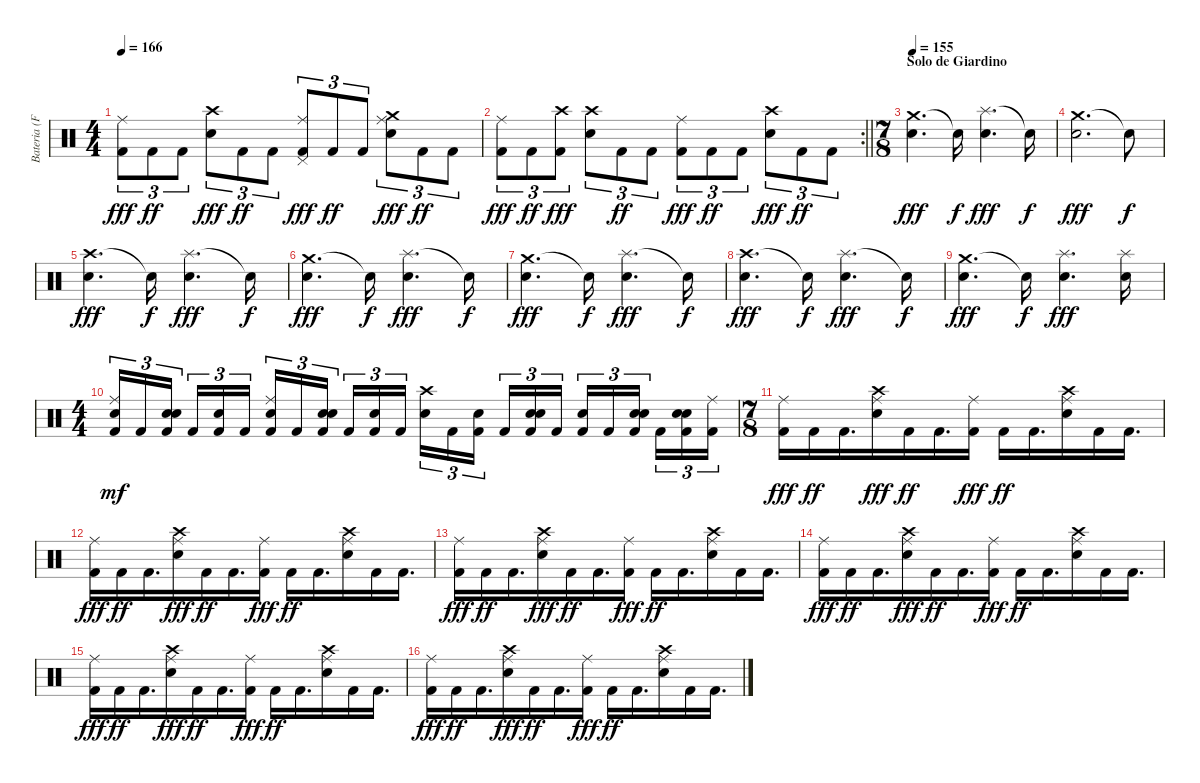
\track ("Bateria (Fernando Scarcella)" "Bateria (F") {instrument percussion}
\staff {score}
\articulation defaults
\ts (4 4)
\tempo 166
\clef neutral
\ks c
("Kick (hit) 2" "Ride (middle)").8{tu (3 2) dy fff} "Kick (hit) 2".8{tu (3 2) dy ff} "Kick (hit) 2".8{tu (3 2)} ("Electric Snare (hit)" "Crash high (hit)").8{tu (3 2) dy fff} "Kick (hit) 2".8{tu (3 2) dy ff} "Kick (hit) 2".8{tu (3 2)} ("Kick (hit) 2" "Ride (middle)" "Pedal Hi-Hat (hit)").8{tu (3 2) dy fff} "Kick (hit) 2".8{tu (3 2) dy ff} "Kick (hit) 2".8{tu (3 2)} ("Electric Snare (hit)" "Crash medium (hit)" "Ride (middle)").8{tu (3 2) dy fff} "Kick (hit) 2".8{tu (3 2) dy ff} "Kick (hit) 2".8{tu (3 2)} |
\rc 2
\barLineRight lightlight
("Kick (hit) 2" "Ride (middle)").8{tu (3 2) dy fff} "Kick (hit) 2".8{tu (3 2) dy ff} ("Kick (hit) 2" "Crash high (hit)").8{tu (3 2) dy fff} ("Electric Snare (hit)" "Crash high (hit)").8{tu (3 2)} "Kick (hit) 2".8{tu (3 2) dy ff} "Kick (hit) 2".8{tu (3 2)} ("Kick (hit) 2" "Ride (middle)").8{tu (3 2) dy fff} "Kick (hit) 2".8{tu (3 2) dy ff} "Kick (hit) 2".8{tu (3 2)} ("Electric Snare (hit)" "Crash high (hit)").8{tu (3 2) dy fff} "Kick (hit) 2".8{tu (3 2) dy ff} "Kick (hit) 2".8{tu (3 2)} |
\ts (7 8)
\section ("" "Solo de Giardino")
\tempo 155
("Crash medium (hit)" "Snare (hit) 2").4{d dy fff} "Snare (hit)"{t}.16{dy f} ("Splash (hit)" "Snare (hit) 2").4{d dy fff} "Snare (hit)"{t}.16{dy f} |
("Crash medium (hit)" "Snare (hit) 2").2{d dy fff} "Snare (hit)"{t}.8{dy f} |
("Crash high (hit)" "Snare (hit) 2").4{d dy fff} "Snare (hit)"{t}.16{dy f} ("Splash (hit)" "Snare (hit) 2").4{d dy fff} "Snare (hit)"{t}.16{dy f} |
("Crash medium (hit)" "Snare (hit) 2").4{d dy fff} "Snare (hit)"{t}.16{dy f} ("Splash (hit)" "Snare (hit) 2").4{d dy fff} "Snare (hit)"{t}.16{dy f} |
("Crash medium (hit)" "Snare (hit) 2").4{d dy fff} "Snare (hit)"{t}.16{dy f} ("Splash (hit)" "Snare (hit) 2").4{d dy fff} "Snare (hit)"{t}.16{dy f} |
("Crash high (hit)" "Snare (hit) 2").4{d dy fff} "Snare (hit)"{t}.16{dy f} ("Splash (hit)" "Snare (hit) 2").4{d dy fff} "Snare (hit)"{t}.16{dy f} |
("Crash medium (hit)" "Snare (hit) 2").4{d dy fff} "Snare (hit)"{t}.16{dy f} ("Splash (hit)" "Snare (hit) 2").4{d dy fff} ("Splash (hit)" "Snare (hit) 2").16 |
\ts (4 4)
("Kick (hit) 2" "Ride (middle)" "Snare (hit) 2").16{tu (3 2) dy mf} "Kick (hit) 2".16{tu (3 2)} ("Kick (hit) 2" "Electric Snare (hit)" "Snare (hit) 2").16{tu (3 2) beam splitsecondary} "Kick (hit) 2".16{tu (3 2)} ("Kick (hit) 2" "Electric Snare (hit)").16{tu (3 2)} "Kick (hit) 2".16{tu (3 2)} ("Kick (hit) 2" "Ride (middle)" "Electric Snare (hit)").16{tu (3 2)} "Kick (hit) 2".16{tu (3 2)} ("Kick (hit) 2" "Electric Snare (hit)" "Snare (hit) 2").16{tu (3 2) beam splitsecondary} "Kick (hit) 2".16{tu (3 2)} ("Kick (hit) 2" "Electric Snare (hit)").16{tu (3 2)} "Kick (hit) 2".16{tu (3 2)} ("Electric Snare (hit)" "Crash high (hit)").16{tu (3 2)} "Kick (hit) 2".16{tu (3 2)} ("Kick (hit) 2" "Electric Snare (hit)").16{tu (3 2) beam splitsecondary} "Kick (hit) 2".16{tu (3 2)} ("Kick (hit) 2" "Electric Snare (hit)" "Snare (hit) 2").16{tu (3 2)} "Kick (hit) 2".16{tu (3 2)} ("Kick (hit) 2" "Electric Snare (hit)").16{tu (3 2)} "Kick (hit) 2".16{tu (3 2)} ("Kick (hit) 2" "Electric Snare (hit)" "Snare (hit) 2").16{tu (3 2) beam splitsecondary} "Kick (hit) 2".16{tu (3 2)} ("Kick (hit) 2" "Electric Snare (hit)" "Snare (hit) 2").16{tu (3 2)} ("Kick (hit) 2" "Ride (middle)").16{tu (3 2)} |
\ts (7 8)
("Kick (hit) 2" "Ride (middle)").16{dy fff} "Kick (hit) 2".16{dy ff} "Kick (hit) 2".16{d} ("Electric Snare (hit)" "Crash high (hit)" "Ride (middle)").16{dy fff} "Kick (hit) 2".16{dy ff} "Kick (hit) 2".16{d} ("Kick (hit) 2" "Ride (middle)").16{dy fff} "Kick (hit) 2".16{dy ff} "Kick (hit) 2".16{d} ("Electric Snare (hit)" "Crash high (hit)" "Ride (middle)").16 "Kick (hit) 2".16 "Kick (hit) 2".16{d} |
("Kick (hit) 2" "Ride (middle)").16{dy fff} "Kick (hit) 2".16{dy ff} "Kick (hit) 2".16{d} ("Electric Snare (hit)" "Crash high (hit)" "Ride (middle)").16{dy fff} "Kick (hit) 2".16{dy ff} "Kick (hit) 2".16{d} ("Kick (hit) 2" "Ride (middle)").16{dy fff} "Kick (hit) 2".16{dy ff} "Kick (hit) 2".16{d} ("Electric Snare (hit)" "Crash high (hit)" "Ride (middle)").16 "Kick (hit) 2".16 "Kick (hit) 2".16{d} |
("Kick (hit) 2" "Ride (middle)").16{dy fff} "Kick (hit) 2".16{dy ff} "Kick (hit) 2".16{d} ("Electric Snare (hit)" "Crash high (hit)" "Ride (middle)").16{dy fff} "Kick (hit) 2".16{dy ff} "Kick (hit) 2".16{d} ("Kick (hit) 2" "Ride (middle)").16{dy fff} "Kick (hit) 2".16{dy ff} "Kick (hit) 2".16{d} ("Electric Snare (hit)" "Crash high (hit)" "Ride (middle)").16 "Kick (hit) 2".16 "Kick (hit) 2".16{d} |
("Kick (hit) 2" "Ride (middle)").16{dy fff} "Kick (hit) 2".16{dy ff} "Kick (hit) 2".16{d} ("Electric Snare (hit)" "Crash high (hit)" "Ride (middle)").16{dy fff} "Kick (hit) 2".16{dy ff} "Kick (hit) 2".16{d} ("Kick (hit) 2" "Ride (middle)").16{dy fff} "Kick (hit) 2".16{dy ff} "Kick (hit) 2".16{d} ("Electric Snare (hit)" "Crash high (hit)" "Ride (middle)").16 "Kick (hit) 2".16 "Kick (hit) 2".16{d} |
("Kick (hit) 2" "Ride (middle)").16{dy fff} "Kick (hit) 2".16{dy ff} "Kick (hit) 2".16{d} ("Electric Snare (hit)" "Crash high (hit)" "Ride (middle)").16{dy fff} "Kick (hit) 2".16{dy ff} "Kick (hit) 2".16{d} ("Kick (hit) 2" "Ride (middle)").16{dy fff} "Kick (hit) 2".16{dy ff} "Kick (hit) 2".16{d} ("Electric Snare (hit)" "Crash high (hit)" "Ride (middle)").16 "Kick (hit) 2".16 "Kick (hit) 2".16{d} |
("Kick (hit) 2" "Ride (middle)").16{dy fff} "Kick (hit) 2".16{dy ff} "Kick (hit) 2".16{d} ("Electric Snare (hit)" "Crash high (hit)" "Ride (middle)").16{dy fff} "Kick (hit) 2".16{dy ff} "Kick (hit) 2".16{d} ("Kick (hit) 2" "Ride (middle)").16{dy fff} "Kick (hit) 2".16{dy ff} "Kick (hit) 2".16{d} ("Electric Snare (hit)" "Crash high (hit)" "Ride (middle)").16 "Kick (hit) 2".16 "Kick (hit) 2".16{d}
